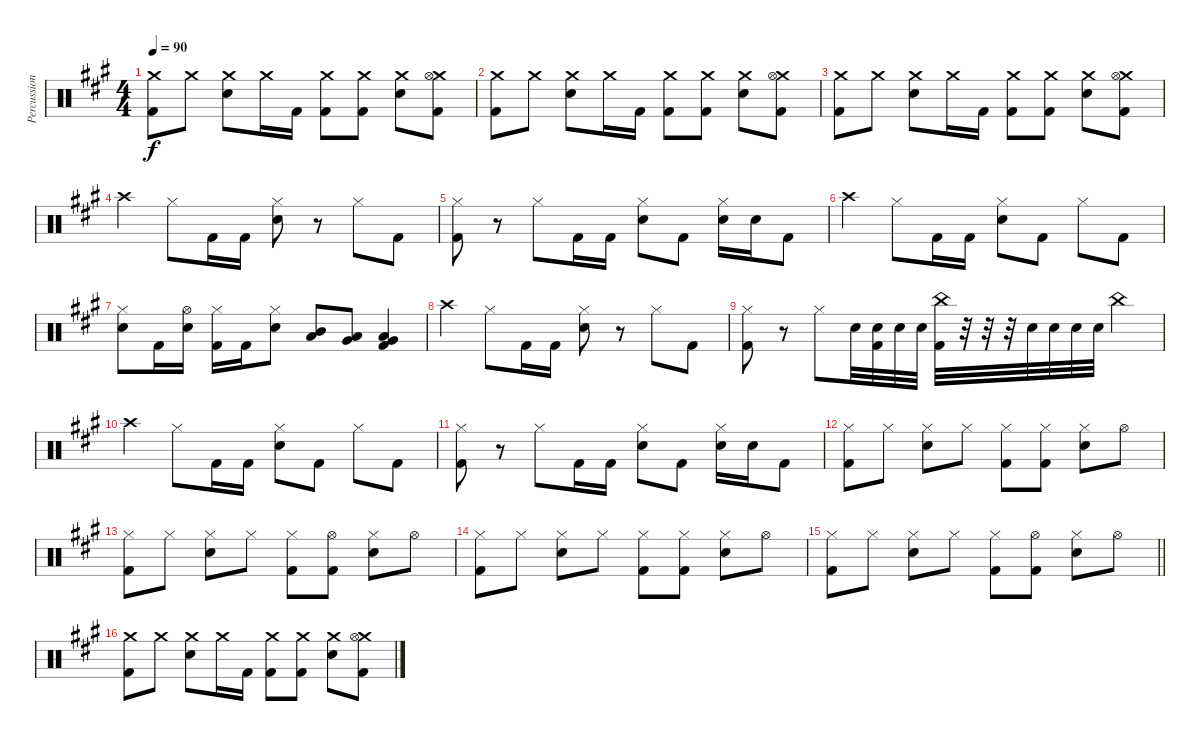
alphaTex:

\track ("Percussion" "Percussion") {instrument percussion}
\staff {score}
\articulation defaults
\ts (4 4)
\tempo 90
\clef neutral
\ks a
("Crash medium (hit)" "Kick (hit) 2").8{dy f} "Crash medium (hit)".8 ("Crash medium (hit)" "Electric Snare (hit)").8 "Crash medium (hit)".16 "Kick (hit) 2".16 ("Crash medium (hit)" "Kick (hit) 2").8 ("Crash medium (hit)" "Kick (hit) 2").8 ("Crash medium (hit)" "Electric Snare (hit)").8 ("Crash medium (hit)" "Hi-Hat (open)" "Kick (hit) 2").8 |
("Crash medium (hit)" "Kick (hit) 2").8 "Crash medium (hit)".8 ("Crash medium (hit)" "Electric Snare (hit)").8 "Crash medium (hit)".16 "Kick (hit) 2".16 ("Crash medium (hit)" "Kick (hit) 2").8 ("Crash medium (hit)" "Kick (hit) 2").8 ("Crash medium (hit)" "Electric Snare (hit)").8 ("Crash medium (hit)" "Hi-Hat (open)" "Kick (hit) 2").8 |
("Crash medium (hit)" "Kick (hit) 2").8 "Crash medium (hit)".8 ("Crash medium (hit)" "Electric Snare (hit)").8 "Crash medium (hit)".16 "Kick (hit) 2".16 ("Crash medium (hit)" "Kick (hit) 2").8 ("Crash medium (hit)" "Kick (hit) 2").8 ("Crash medium (hit)" "Electric Snare (hit)").8 ("Crash medium (hit)" "Hi-Hat (open)" "Kick (hit) 2").8 |
"Crash high (hit)".4 "Hi-Hat (closed)".8 "Kick (hit) 2".16 "Kick (hit) 2".16 ("Hi-Hat (closed)" "Electric Snare (hit)").8 r.8 "Hi-Hat (closed)".8 "Kick (hit) 2".8 |
("Hi-Hat (closed)" "Kick (hit) 2").8 r.8 "Hi-Hat (closed)".8 "Kick (hit) 2".16 "Kick (hit) 2".16 ("Hi-Hat (closed)" "Electric Snare (hit)").8 "Kick (hit) 2".8 ("Hi-Hat (closed)" "Electric Snare (hit)").16 "Electric Snare (hit)".16 "Kick (hit) 2".8 |
"Crash high (hit)".4 "Hi-Hat (closed)".8 "Kick (hit) 2".16 "Kick (hit) 2".16 ("Hi-Hat (closed)" "Electric Snare (hit)").8 "Kick (hit) 2".8 "Hi-Hat (closed)".8 "Kick (hit) 2".8 |
("Hi-Hat (closed)" "Electric Snare (hit)").8 "Kick (hit) 2".16 ("Hi-Hat (open)" "Electric Snare (hit)").16 ("Hi-Hat (closed)" "Kick (hit) 2").16 "Kick (hit) 2".16 ("Hi-Hat (closed)" "Electric Snare (hit)").8 ("Mid Tom (hit)" "Low Tom (hit)").8 ("Low Tom (hit)" "Very Low Tom (hit)").8 ("Very Low Tom (hit)" "Low Floor Tom (hit)" "Kick (hit) 2").4 |
"Crash high (hit)".4 "Hi-Hat (closed)".8 "Kick (hit) 2".16 "Kick (hit) 2".16 ("Hi-Hat (closed)" "Electric Snare (hit)").8 r.8 "Hi-Hat (closed)".8 "Kick (hit) 2".8 |
("Hi-Hat (closed)" "Kick (hit) 2").8 r.8 "Hi-Hat (closed)".8 "Electric Snare (hit)".32 ("Electric Snare (hit)" "Kick (hit) 2").32 "Electric Snare (hit)".32 "Electric Snare (hit)".32 ("China (hit)" "Kick (hit) 2").32 r.32 r.32 r.32 "Electric Snare (hit)".32 "Electric Snare (hit)".32 "Electric Snare (hit)".32 "Electric Snare (hit)".32 "China (hit)".4 |
"Crash high (hit)".4 "Hi-Hat (closed)".8 "Kick (hit) 2".16 "Kick (hit) 2".16 ("Hi-Hat (closed)" "Electric Snare (hit)").8 "Kick (hit) 2".8 "Hi-Hat (closed)".8 "Kick (hit) 2".8 |
("Hi-Hat (closed)" "Kick (hit) 2").8 r.8 "Hi-Hat (closed)".8 "Kick (hit) 2".16 "Kick (hit) 2".16 ("Hi-Hat (closed)" "Electric Snare (hit)").8 "Kick (hit) 2".8 ("Hi-Hat (closed)" "Electric Snare (hit)").16 "Electric Snare (hit)".16 "Kick (hit) 2".8 |
("Hi-Hat (closed)" "Kick (hit) 2").8 "Hi-Hat (closed)".8 ("Hi-Hat (closed)" "Electric Snare (hit)").8 "Hi-Hat (closed)".8 ("Hi-Hat (closed)" "Kick (hit) 2").8 ("Hi-Hat (closed)" "Kick (hit) 2").8 ("Hi-Hat (closed)" "Electric Snare (hit)").8 "Hi-Hat (open)".8 |
("Hi-Hat (closed)" "Kick (hit) 2").8 "Hi-Hat (closed)".8 ("Hi-Hat (closed)" "Electric Snare (hit)").8 "Hi-Hat (closed)".8 ("Hi-Hat (closed)" "Kick (hit) 2").8 ("Hi-Hat (open)" "Kick (hit) 2").8 ("Hi-Hat (closed)" "Electric Snare (hit)").8 "Hi-Hat (open)".8 |
("Hi-Hat (closed)" "Kick (hit) 2").8 "Hi-Hat (closed)".8 ("Hi-Hat (closed)" "Electric Snare (hit)").8 "Hi-Hat (closed)".8 ("Hi-Hat (closed)" "Kick (hit) 2").8 ("Hi-Hat (closed)" "Kick (hit) 2").8 ("Hi-Hat (closed)" "Electric Snare (hit)").8 "Hi-Hat (open)".8 |
\barLineRight lightlight
("Hi-Hat (closed)" "Kick (hit) 2").8 "Hi-Hat (closed)".8 ("Hi-Hat (closed)" "Electric Snare (hit)").8 "Hi-Hat (closed)".8 ("Hi-Hat (closed)" "Kick (hit) 2").8 ("Hi-Hat (open)" "Kick (hit) 2").8 ("Hi-Hat (closed)" "Electric Snare (hit)").8 "Hi-Hat (open)".8 |
("Crash medium (hit)" "Kick (hit) 2").8 "Crash medium (hit)".8 ("Crash medium (hit)" "Electric Snare (hit)").8 "Crash medium (hit)".16 "Kick (hit) 2".16 ("Crash medium (hit)" "Kick (hit) 2").8 ("Crash medium (hit)" "Kick (hit) 2").8 ("Crash medium (hit)" "Electric Snare (hit)").8 ("Crash medium (hit)" "Hi-Hat (open)" "Kick (hit) 2").8
